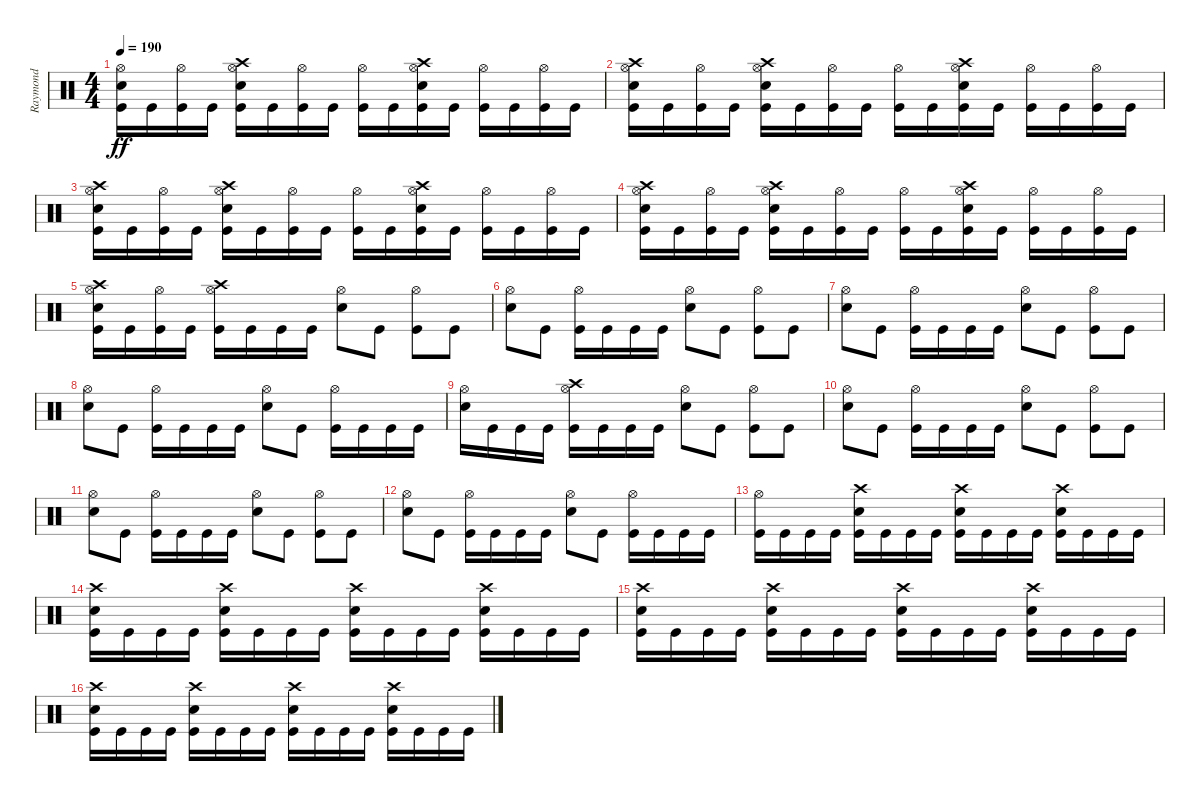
\track ("Raymond" "Raymond") {instrument percussion}
\staff {score}
\articulation defaults
\ts (4 4)
\tempo 190
\clef neutral
\ks c
("Kick (hit)" "Snare (hit) 2" "Hi-Hat (open)").16{dy ff} "Kick (hit)".16 ("Kick (hit)" "Hi-Hat (open)").16 "Kick (hit)".16 ("Kick (hit)" "Snare (hit) 2" "Hi-Hat (open)" "Crash high (hit)").16 "Kick (hit)".16 ("Kick (hit)" "Hi-Hat (open)").16 "Kick (hit)".16 ("Kick (hit)" "Hi-Hat (open)").16 "Kick (hit)".16 ("Kick (hit)" "Snare (hit) 2" "Hi-Hat (open)" "Crash high (hit)").16 "Kick (hit)".16 ("Kick (hit)" "Hi-Hat (open)").16 "Kick (hit)".16 ("Kick (hit)" "Hi-Hat (open)").16 "Kick (hit)".16 |
("Kick (hit)" "Snare (hit) 2" "Hi-Hat (open)" "Crash high (hit)").16 "Kick (hit)".16 ("Kick (hit)" "Hi-Hat (open)").16 "Kick (hit)".16 ("Kick (hit)" "Snare (hit) 2" "Hi-Hat (open)" "Crash high (hit)").16 "Kick (hit)".16 ("Kick (hit)" "Hi-Hat (open)").16 "Kick (hit)".16 ("Kick (hit)" "Hi-Hat (open)").16 "Kick (hit)".16 ("Kick (hit)" "Snare (hit) 2" "Hi-Hat (open)" "Crash high (hit)").16 "Kick (hit)".16 ("Kick (hit)" "Hi-Hat (open)").16 "Kick (hit)".16 ("Kick (hit)" "Hi-Hat (open)").16 "Kick (hit)".16 |
("Kick (hit)" "Snare (hit) 2" "Hi-Hat (open)" "Crash high (hit)").16 "Kick (hit)".16 ("Kick (hit)" "Hi-Hat (open)").16 "Kick (hit)".16 ("Kick (hit)" "Snare (hit) 2" "Hi-Hat (open)" "Crash high (hit)").16 "Kick (hit)".16 ("Kick (hit)" "Hi-Hat (open)").16 "Kick (hit)".16 ("Kick (hit)" "Hi-Hat (open)").16 "Kick (hit)".16 ("Kick (hit)" "Snare (hit) 2" "Hi-Hat (open)" "Crash high (hit)").16 "Kick (hit)".16 ("Kick (hit)" "Hi-Hat (open)").16 "Kick (hit)".16 ("Kick (hit)" "Hi-Hat (open)").16 "Kick (hit)".16 |
("Kick (hit)" "Snare (hit) 2" "Hi-Hat (open)" "Crash high (hit)").16 "Kick (hit)".16 ("Kick (hit)" "Hi-Hat (open)").16 "Kick (hit)".16 ("Kick (hit)" "Snare (hit) 2" "Hi-Hat (open)" "Crash high (hit)").16 "Kick (hit)".16 ("Kick (hit)" "Hi-Hat (open)").16 "Kick (hit)".16 ("Kick (hit)" "Hi-Hat (open)").16 "Kick (hit)".16 ("Kick (hit)" "Snare (hit) 2" "Hi-Hat (open)" "Crash high (hit)").16 "Kick (hit)".16 ("Kick (hit)" "Hi-Hat (open)").16 "Kick (hit)".16 ("Kick (hit)" "Hi-Hat (open)").16 "Kick (hit)".16 |
("Kick (hit)" "Snare (hit) 2" "Hi-Hat (open)" "Crash high (hit)").16 "Kick (hit)".16 ("Kick (hit)" "Hi-Hat (open)").16 "Kick (hit)".16 ("Kick (hit)" "Hi-Hat (open)" "Crash high (hit)").16 "Kick (hit)".16 "Kick (hit)".16 "Kick (hit)".16 ("Snare (hit) 2" "Hi-Hat (open)").8 "Kick (hit)".8 ("Kick (hit)" "Hi-Hat (open)").8 "Kick (hit)".8 |
("Snare (hit) 2" "Hi-Hat (open)").8 "Kick (hit)".8 ("Kick (hit)" "Hi-Hat (open)").16 "Kick (hit)".16 "Kick (hit)".16 "Kick (hit)".16 ("Snare (hit) 2" "Hi-Hat (open)").8 "Kick (hit)".8 ("Kick (hit)" "Hi-Hat (open)").8 "Kick (hit)".8 |
("Snare (hit) 2" "Hi-Hat (open)").8 "Kick (hit)".8 ("Kick (hit)" "Hi-Hat (open)").16 "Kick (hit)".16 "Kick (hit)".16 "Kick (hit)".16 ("Snare (hit) 2" "Hi-Hat (open)").8 "Kick (hit)".8 ("Kick (hit)" "Hi-Hat (open)").8 "Kick (hit)".8 |
("Snare (hit) 2" "Hi-Hat (open)").8 "Kick (hit)".8 ("Kick (hit)" "Hi-Hat (open)").16 "Kick (hit)".16 "Kick (hit)".16 "Kick (hit)".16 ("Snare (hit) 2" "Hi-Hat (open)").8 "Kick (hit)".8 ("Kick (hit)" "Hi-Hat (open)").16 "Kick (hit)".16 "Kick (hit)".16 "Kick (hit)".16 |
("Snare (hit) 2" "Hi-Hat (open)").16 "Kick (hit)".16 "Kick (hit)".16 "Kick (hit)".16 ("Kick (hit)" "Hi-Hat (open)" "Crash high (hit)").16 "Kick (hit)".16 "Kick (hit)".16 "Kick (hit)".16 ("Snare (hit) 2" "Hi-Hat (open)").8 "Kick (hit)".8 ("Kick (hit)" "Hi-Hat (open)").8 "Kick (hit)".8 |
("Snare (hit) 2" "Hi-Hat (open)").8 "Kick (hit)".8 ("Kick (hit)" "Hi-Hat (open)").16 "Kick (hit)".16 "Kick (hit)".16 "Kick (hit)".16 ("Snare (hit) 2" "Hi-Hat (open)").8 "Kick (hit)".8 ("Kick (hit)" "Hi-Hat (open)").8 "Kick (hit)".8 |
("Snare (hit) 2" "Hi-Hat (open)").8 "Kick (hit)".8 ("Kick (hit)" "Hi-Hat (open)").16 "Kick (hit)".16 "Kick (hit)".16 "Kick (hit)".16 ("Snare (hit) 2" "Hi-Hat (open)").8 "Kick (hit)".8 ("Kick (hit)" "Hi-Hat (open)").8 "Kick (hit)".8 |
("Snare (hit) 2" "Hi-Hat (open)").8 "Kick (hit)".8 ("Kick (hit)" "Hi-Hat (open)").16 "Kick (hit)".16 "Kick (hit)".16 "Kick (hit)".16 ("Snare (hit) 2" "Hi-Hat (open)").8 "Kick (hit)".8 ("Kick (hit)" "Hi-Hat (open)").16 "Kick (hit)".16 "Kick (hit)".16 "Kick (hit)".16 |
("Kick (hit)" "Hi-Hat (open)").16 "Kick (hit)".16 "Kick (hit)".16 "Kick (hit)".16 ("Kick (hit)" "Snare (hit) 2" "Crash high (hit)").16 "Kick (hit)".16 "Kick (hit)".16 "Kick (hit)".16 ("Kick (hit)" "Snare (hit) 2" "Crash high (hit)").16 "Kick (hit)".16 "Kick (hit)".16 "Kick (hit)".16 ("Kick (hit)" "Snare (hit) 2" "Crash high (hit)").16 "Kick (hit)".16 "Kick (hit)".16 "Kick (hit)".16 |
("Kick (hit)" "Snare (hit) 2" "Crash high (hit)").16 "Kick (hit)".16 "Kick (hit)".16 "Kick (hit)".16 ("Kick (hit)" "Snare (hit) 2" "Crash high (hit)").16 "Kick (hit)".16 "Kick (hit)".16 "Kick (hit)".16 ("Kick (hit)" "Snare (hit) 2" "Crash high (hit)").16 "Kick (hit)".16 "Kick (hit)".16 "Kick (hit)".16 ("Kick (hit)" "Snare (hit) 2" "Crash high (hit)").16 "Kick (hit)".16 "Kick (hit)".16 "Kick (hit)".16 |
("Kick (hit)" "Snare (hit) 2" "Crash high (hit)").16 "Kick (hit)".16 "Kick (hit)".16 "Kick (hit)".16 ("Kick (hit)" "Snare (hit) 2" "Crash high (hit)").16 "Kick (hit)".16 "Kick (hit)".16 "Kick (hit)".16 ("Kick (hit)" "Snare (hit) 2" "Crash high (hit)").16 "Kick (hit)".16 "Kick (hit)".16 "Kick (hit)".16 ("Kick (hit)" "Snare (hit) 2" "Crash high (hit)").16 "Kick (hit)".16 "Kick (hit)".16 "Kick (hit)".16 |
("Kick (hit)" "Snare (hit) 2" "Crash high (hit)").16 "Kick (hit)".16 "Kick (hit)".16 "Kick (hit)".16 ("Kick (hit)" "Snare (hit) 2" "Crash high (hit)").16 "Kick (hit)".16 "Kick (hit)".16 "Kick (hit)".16 ("Kick (hit)" "Snare (hit) 2" "Crash high (hit)").16 "Kick (hit)".16 "Kick (hit)".16 "Kick (hit)".16 ("Kick (hit)" "Snare (hit) 2" "Crash high (hit)").16 "Kick (hit)".16 "Kick (hit)".16 "Kick (hit)".16
